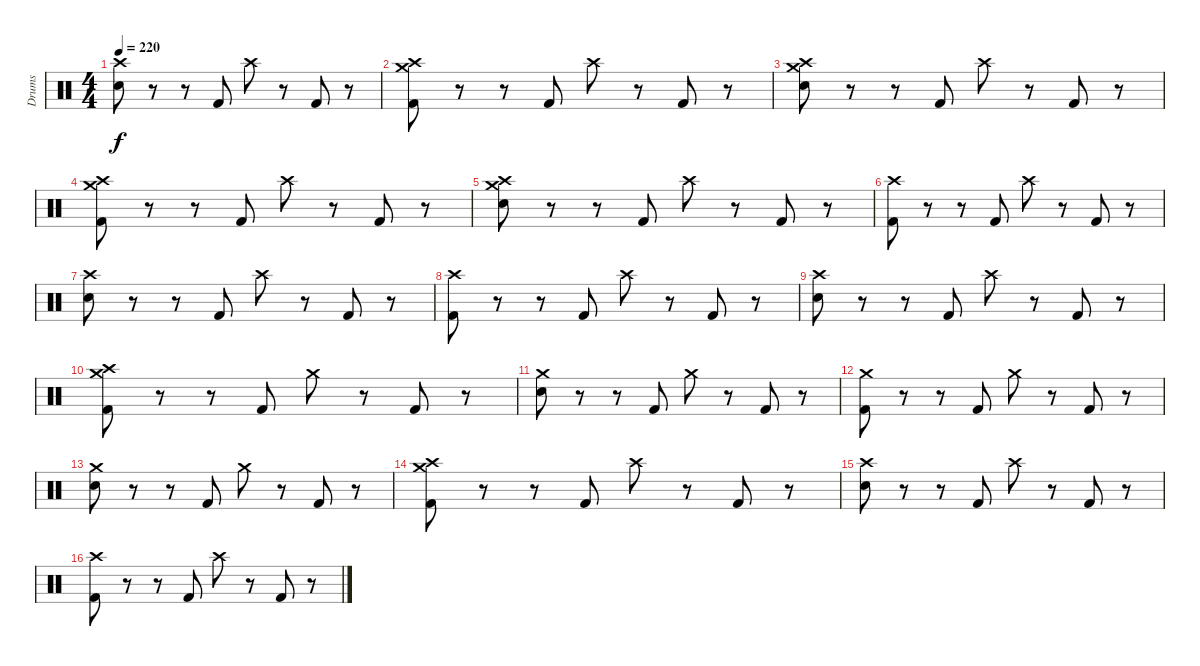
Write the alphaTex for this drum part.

\track ("Drums" "Drums") {instrument percussion}
\staff {score}
\articulation defaults
\ts (4 4)
\tempo 220
\clef neutral
\ks c
("Crash high (hit)" "Electric Snare (hit)").8{dy f} r.8 r.8 "Kick (hit) 2".8 "Crash high (hit)".8 r.8 "Kick (hit) 2".8 r.8 |
("Crash high (hit)" "Crash medium (hit)" "Kick (hit) 2").8 r.8 r.8 "Kick (hit) 2".8 "Crash high (hit)".8 r.8 "Kick (hit) 2".8 r.8 |
("Crash high (hit)" "Crash medium (hit)" "Electric Snare (hit)").8 r.8 r.8 "Kick (hit) 2".8 "Crash high (hit)".8 r.8 "Kick (hit) 2".8 r.8 |
("Crash high (hit)" "Crash medium (hit)" "Kick (hit) 2").8 r.8 r.8 "Kick (hit) 2".8 "Crash high (hit)".8 r.8 "Kick (hit) 2".8 r.8 |
("Crash high (hit)" "Crash medium (hit)" "Electric Snare (hit)").8 r.8 r.8 "Kick (hit) 2".8 "Crash high (hit)".8 r.8 "Kick (hit) 2".8 r.8 |
("Crash high (hit)" "Kick (hit) 2").8 r.8 r.8 "Kick (hit) 2".8 "Crash high (hit)".8 r.8 "Kick (hit) 2".8 r.8 |
("Crash high (hit)" "Electric Snare (hit)").8 r.8 r.8 "Kick (hit) 2".8 "Crash high (hit)".8 r.8 "Kick (hit) 2".8 r.8 |
("Crash high (hit)" "Kick (hit) 2").8 r.8 r.8 "Kick (hit) 2".8 "Crash high (hit)".8 r.8 "Kick (hit) 2".8 r.8 |
("Crash high (hit)" "Electric Snare (hit)").8 r.8 r.8 "Kick (hit) 2".8 "Crash high (hit)".8 r.8 "Kick (hit) 2".8 r.8 |
("Crash high (hit)" "Crash medium (hit)" "Kick (hit) 2").8 r.8 r.8 "Kick (hit) 2".8 "Crash medium (hit)".8 r.8 "Kick (hit) 2".8 r.8 |
("Crash medium (hit)" "Electric Snare (hit)").8 r.8 r.8 "Kick (hit) 2".8 "Crash medium (hit)".8 r.8 "Kick (hit) 2".8 r.8 |
("Crash medium (hit)" "Kick (hit) 2").8 r.8 r.8 "Kick (hit) 2".8 "Crash medium (hit)".8 r.8 "Kick (hit) 2".8 r.8 |
("Crash medium (hit)" "Electric Snare (hit)").8 r.8 r.8 "Kick (hit) 2".8 "Crash medium (hit)".8 r.8 "Kick (hit) 2".8 r.8 |
("Crash high (hit)" "Crash medium (hit)" "Kick (hit) 2").8 r.8 r.8 "Kick (hit) 2".8 "Crash high (hit)".8 r.8 "Kick (hit) 2".8 r.8 |
("Crash high (hit)" "Electric Snare (hit)").8 r.8 r.8 "Kick (hit) 2".8 "Crash high (hit)".8 r.8 "Kick (hit) 2".8 r.8 |
("Crash high (hit)" "Kick (hit) 2").8 r.8 r.8 "Kick (hit) 2".8 "Crash high (hit)".8 r.8 "Kick (hit) 2".8 r.8
